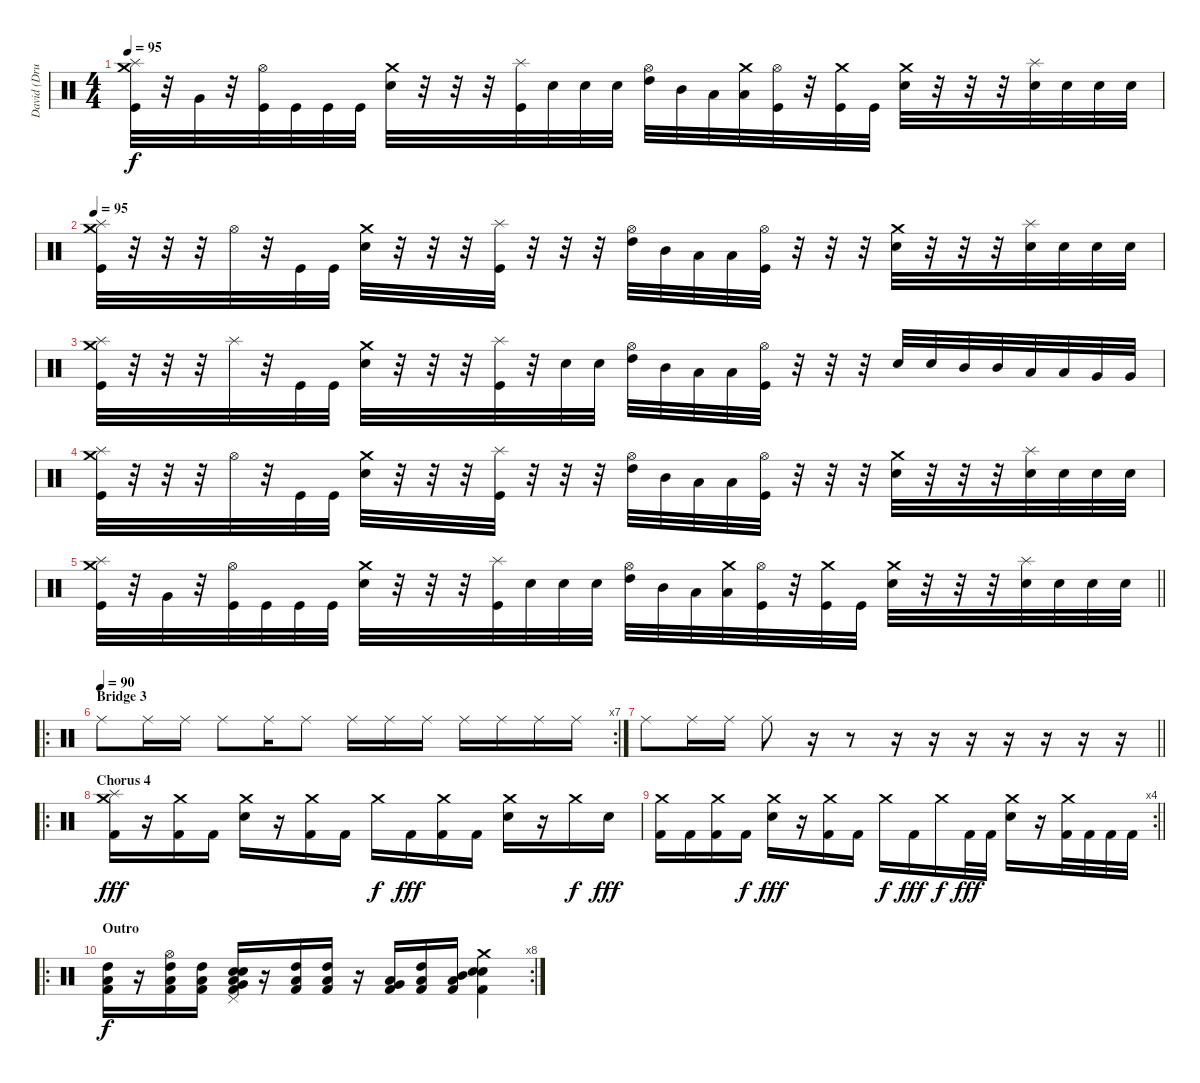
\track ("David (Drums)" "David (Dru") {instrument percussion}
\staff {score}
\articulation defaults
\ts (4 4)
\tempo 95
\clef neutral
\ks c
("Splash (hit)" "Kick (hit)" "Crash medium (hit)").32{dy f} r.32 "Very Low Tom (hit)".32 r.32 ("Kick (hit)" "Hi-Hat (open)").32 "Kick (hit)".32 "Kick (hit)".32 "Kick (hit)".32 ("Crash medium (hit)" "Electric Snare (hit)").32 r.32 r.32 r.32 ("Splash (hit)" "Kick (hit)").32 "Electric Snare (hit)".32 "Electric Snare (hit)".32 "Electric Snare (hit)".32 ("Hi-Hat (open)" "High Tom (hit)").32 "Mid Tom (hit)".32 "Low Tom (hit)".32 ("Crash medium (hit)" "Low Floor Tom (hit)").32 ("Kick (hit)" "Hi-Hat (open)").32 r.32 ("Crash medium (hit)" "Kick (hit)").32 "Kick (hit)".32 ("Electric Snare (hit)" "Crash medium (hit)").32 r.32 r.32 r.32 ("Splash (hit)" "Electric Snare (hit)").32 "Electric Snare (hit)".32 "Electric Snare (hit)".32 "Electric Snare (hit)".32 |
\tempo 95
("Splash (hit)" "Kick (hit)" "Crash medium (hit)").32 r.32 r.32 r.32 "Hi-Hat (open)".32 r.32 "Kick (hit)".32 "Kick (hit)".32 ("Crash medium (hit)" "Electric Snare (hit)").32 r.32 r.32 r.32 ("Splash (hit)" "Kick (hit)").32 r.32 r.32 r.32 ("Hi-Hat (open)" "High Tom (hit)").32 "Mid Tom (hit)".32 "Low Tom (hit)".32 "Low Floor Tom (hit)".32 ("Kick (hit)" "Hi-Hat (open)").32 r.32 r.32 r.32 ("Electric Snare (hit)" "Crash medium (hit)").32 r.32 r.32 r.32 ("Splash (hit)" "Electric Snare (hit)").32 "Electric Snare (hit)".32 "Electric Snare (hit)".32 "Electric Snare (hit)".32 |
("Splash (hit)" "Kick (hit)" "Crash medium (hit)").32 r.32 r.32 r.32 "Splash (hit)".32 r.32 "Kick (hit)".32 "Kick (hit)".32 ("Crash medium (hit)" "Electric Snare (hit)").32 r.32 r.32 r.32 ("Splash (hit)" "Kick (hit)").32 r.32 "Electric Snare (hit)".32 "Electric Snare (hit)".32 ("Hi-Hat (open)" "High Tom (hit)").32 "Mid Tom (hit)".32 "Low Tom (hit)".32 "Low Floor Tom (hit)".32 ("Kick (hit)" "Hi-Hat (open)").32 r.32 r.32 r.32 "Electric Snare (hit)".32 "Electric Snare (hit)".32 "Mid Tom (hit)".32 "Mid Tom (hit)".32 "Low Tom (hit)".32 "Low Tom (hit)".32 "Very Low Tom (hit)".32 "Very Low Tom (hit)".32 |
("Splash (hit)" "Kick (hit)" "Crash medium (hit)").32 r.32 r.32 r.32 "Hi-Hat (open)".32 r.32 "Kick (hit)".32 "Kick (hit)".32 ("Crash medium (hit)" "Electric Snare (hit)").32 r.32 r.32 r.32 ("Splash (hit)" "Kick (hit)").32 r.32 r.32 r.32 ("Hi-Hat (open)" "High Tom (hit)").32 "Mid Tom (hit)".32 "Low Tom (hit)".32 "Low Floor Tom (hit)".32 ("Kick (hit)" "Hi-Hat (open)").32 r.32 r.32 r.32 ("Electric Snare (hit)" "Crash medium (hit)").32 r.32 r.32 r.32 ("Splash (hit)" "Electric Snare (hit)").32 "Electric Snare (hit)".32 "Electric Snare (hit)".32 "Electric Snare (hit)".32 |
\barLineRight lightlight
("Splash (hit)" "Kick (hit)" "Crash medium (hit)").32 r.32 "Very Low Tom (hit)".32 r.32 ("Kick (hit)" "Hi-Hat (open)").32 "Kick (hit)".32 "Kick (hit)".32 "Kick (hit)".32 ("Crash medium (hit)" "Electric Snare (hit)").32 r.32 r.32 r.32 ("Splash (hit)" "Kick (hit)").32 "Electric Snare (hit)".32 "Electric Snare (hit)".32 "Electric Snare (hit)".32 ("Hi-Hat (open)" "High Tom (hit)").32 "Mid Tom (hit)".32 "Low Tom (hit)".32 ("Crash medium (hit)" "Low Floor Tom (hit)").32 ("Kick (hit)" "Hi-Hat (open)").32 r.32 ("Crash medium (hit)" "Kick (hit)").32 "Kick (hit)".32 ("Electric Snare (hit)" "Crash medium (hit)").32 r.32 r.32 r.32 ("Splash (hit)" "Electric Snare (hit)").32 "Electric Snare (hit)".32 "Electric Snare (hit)".32 "Electric Snare (hit)".32 |
\ro
\rc 7
\section ("" "Bridge 3")
\tempo (90)
"Ride (middle)".8 "Ride (middle)".16 "Ride (middle)".16 "Ride (middle)".8 "Ride (middle)".16 "Ride (middle)".8 "Ride (middle)".16 "Ride (middle)".16 "Ride (middle)".16 "Ride (middle)".16 "Ride (middle)".16 "Ride (middle)".16 "Ride (middle)".16 |
\barLineRight lightlight "Ride (middle)".8 "Ride (middle)".16 "Ride (middle)".16 "Ride (middle)".8
r.16 r.8 r.16 r.16 r.16 r.16 r.16 r.16 r.16 |
\ro
\section ("" "Chorus 4")
("Splash (hit)" "Crash medium (hit)" "Kick (hit) 2").16{dy fff} r.16 ("Crash medium (hit)" "Kick (hit) 2").16 "Kick (hit) 2".16 ("Crash medium (hit)" "Electric Snare (hit)").16 r.16 ("Crash medium (hit)" "Kick (hit) 2").16 "Kick (hit) 2".16 "Crash medium (hit)".16{dy f} "Kick (hit) 2".16{dy fff} ("Crash medium (hit)" "Kick (hit) 2").16 "Kick (hit) 2".16 ("Crash medium (hit)" "Electric Snare (hit)").16 r.16 "Crash medium (hit)".16{dy f} "Electric Snare (hit)".16{dy fff} |
\rc 4
\barLineRight lightlight
("Crash medium (hit)" "Kick (hit) 2").16 "Kick (hit) 2".16 ("Crash medium (hit)" "Kick (hit) 2").16 "Kick (hit) 2".16{dy f} ("Crash medium (hit)" "Electric Snare (hit)").16{dy fff} r.16 ("Crash medium (hit)" "Kick (hit) 2").16 "Kick (hit) 2".16 "Crash medium (hit)".16{dy f} "Kick (hit) 2".16{dy fff} "Crash medium (hit)".16{dy f} "Kick (hit) 2".32{dy fff} "Kick (hit) 2".32 ("Crash medium (hit)" "Electric Snare (hit)").16 r.16 ("Crash medium (hit)" "Kick (hit) 2").32 "Kick (hit) 2".32 "Kick (hit) 2".32 "Kick (hit) 2".32 |
\ro
\rc 8
\section ("" "Outro")
("Low Floor Tom (hit)" "High Tom (hit)" "Kick (hit) 2").16{dy f} r.16 ("Hi-Hat (open)" "Low Floor Tom (hit)" "High Tom (hit)" "Kick (hit) 2").16 ("Low Floor Tom (hit)" "High Tom (hit)" "Kick (hit) 2").16 ("Pedal Hi-Hat (hit)" "Low Floor Tom (hit)" "Electric Snare (hit)" "Kick (hit) 2" "Snare (hit) 2" "Very Low Tom (hit)").16 r.16 ("Low Floor Tom (hit)" "High Tom (hit)" "Kick (hit) 2").16 ("Low Floor Tom (hit)" "High Tom (hit)" "Kick (hit) 2").16 r.16 ("Low Floor Tom (hit)" "Very Low Tom (hit)" "Kick (hit) 2").16 ("Low Floor Tom (hit)" "High Tom (hit)" "Kick (hit) 2").16 ("Low Floor Tom (hit)" "Mid Tom (hit)" "Kick (hit) 2").16 ("Crash medium (hit)" "Snare (hit) 2" "Electric Snare (hit)" "Kick (hit) 2").4
